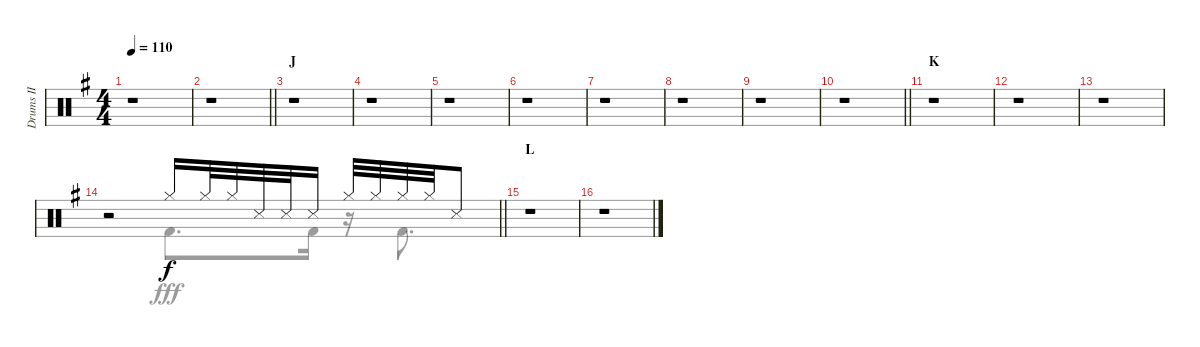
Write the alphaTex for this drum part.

\track ("Drums II" "Drums II") {instrument percussion}
\staff {score}
\articulation defaults
\voice
\ts (4 4)
\tempo 110
\clef neutral
\ks g
r.1{dy f} |
\barLineRight lightlight
r.1 |
\section ("" "J")
r.1 |
r.1 |
r.1 |
r.1 |
r.1 |
r.1 |
r.1 |
\barLineRight lightlight
r.1 |
\section ("" "K")
r.1 |
r.1 |
r.1 |
\barLineRight lightlight
r.2 "Hi-Hat (closed)".16 "Hi-Hat (closed)".32 "Hi-Hat (closed)".32 "Snare (side stick) 3".32 "Snare (side stick) 3".32 "Snare (side stick) 3".16 "Hi-Hat (closed)".32 "Hi-Hat (closed)".32 "Hi-Hat (closed)".32 "Hi-Hat (closed)".32 "Snare (side stick) 3".8 |
\section ("" "L")
r.1 |
r.1
\voice
\clef neutral
\ottava regular
\simile none
\ks g
r.1{dy fff} |
\barLineRight lightlight
r.1 |
r.1 |
r.1 |
r.1 |
r.1 |
r.1 |
r.1 |
r.1 |
\barLineRight lightlight
r.1 |
r.1 |
r.1 |
r.1 |
\barLineRight lightlight
r.2 "Kick (hit) 2".8{d} "Kick (hit) 2".16 r.16 "Kick (hit) 2".8{d} |
r.1 |
r.1
